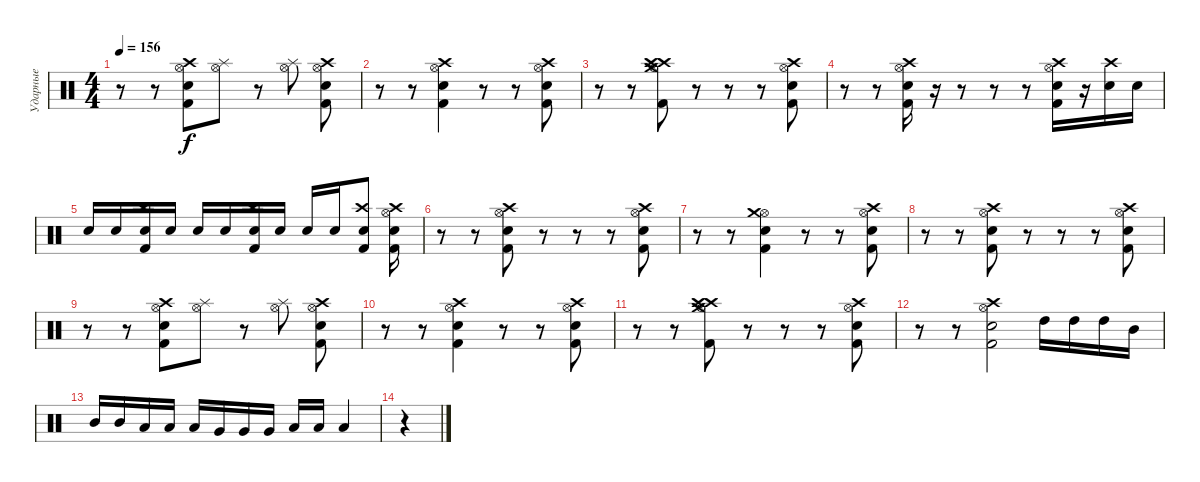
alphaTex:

\track ("Ударные" "Ударные") {instrument percussion}
\staff {score}
\articulation defaults
\ts (4 4)
\tempo 156
\clef neutral
\ks c
r.8{dy f} r.8 ("Kick (hit) 2" "Electric Snare (hit)" "Hi-Hat (open)" "Crash high (hit)").8 ("Splash (hit)" "Hi-Hat (open)").8 r.8 ("Splash (hit)" "Hi-Hat (open)").8 ("Kick (hit) 2" "Electric Snare (hit)" "Hi-Hat (open)" "Crash high (hit)").8 |
r.8 r.8 ("Kick (hit) 2" "Electric Snare (hit)" "Hi-Hat (open)" "Crash high (hit)").4 r.8 r.8 ("Kick (hit) 2" "Electric Snare (hit)" "Hi-Hat (open)" "Crash high (hit)").8 |
r.8 r.8 ("Kick (hit) 2" "Crash medium (hit)" "Crash high (hit)" "Hi-Hat (open)" "Crash high (hit)").8 r.8 r.8 r.8 ("Kick (hit) 2" "Electric Snare (hit)" "Hi-Hat (open)" "Crash high (hit)").8 |
r.8 r.8 ("Kick (hit) 2" "Electric Snare (hit)" "Hi-Hat (open)" "Crash high (hit)").16 r.16 r.8 r.8 r.8 ("Kick (hit) 2" "Electric Snare (hit)" "Hi-Hat (open)" "Crash high (hit)").16 r.16 ("Snare (hit) 2" "Crash high (hit)").16 "Electric Snare (hit)".16 |
"Snare (hit) 2".16 "Electric Snare (hit)".16 ("Kick (hit) 2" "Snare (hit) 2" "Crash high (hit)").16 "Electric Snare (hit)".16 "Snare (hit) 2".16 "Electric Snare (hit)".16 ("Kick (hit) 2" "Snare (hit) 2" "Crash high (hit)").16 "Electric Snare (hit)".16 "Snare (hit) 2".16 "Electric Snare (hit)".16 ("Kick (hit) 2" "Snare (hit) 2" "Crash high (hit)").8 ("Kick (hit) 2" "Electric Snare (hit)" "Hi-Hat (open)" "Crash high (hit)").16 |
r.8 r.8 ("Kick (hit) 2" "Electric Snare (hit)" "Hi-Hat (open)" "Crash high (hit)").8 r.8 r.8 r.8 ("Kick (hit) 2" "Electric Snare (hit)" "Hi-Hat (open)" "Crash high (hit)").8 |
r.8 r.8 ("Kick (hit) 2" "Electric Snare (hit)" "Hi-Hat (open)" "Crash medium (hit)").4 r.8 r.8 ("Kick (hit) 2" "Electric Snare (hit)" "Hi-Hat (open)" "Crash high (hit)").8 |
r.8 r.8 ("Kick (hit) 2" "Electric Snare (hit)" "Hi-Hat (open)" "Crash high (hit)").8 r.8 r.8 r.8 ("Kick (hit) 2" "Electric Snare (hit)" "Hi-Hat (open)" "Crash high (hit)").8 |
r.8 r.8 ("Kick (hit) 2" "Electric Snare (hit)" "Hi-Hat (open)" "Crash high (hit)").8 ("Splash (hit)" "Hi-Hat (open)").8 r.8 ("Splash (hit)" "Hi-Hat (open)").8 ("Kick (hit) 2" "Electric Snare (hit)" "Hi-Hat (open)" "Crash high (hit)").8 |
r.8 r.8 ("Kick (hit) 2" "Electric Snare (hit)" "Hi-Hat (open)" "Crash high (hit)").4 r.8 r.8 ("Kick (hit) 2" "Electric Snare (hit)" "Hi-Hat (open)" "Crash high (hit)").8 |
r.8 r.8 ("Kick (hit) 2" "Crash medium (hit)" "Crash high (hit)" "Hi-Hat (open)" "Crash high (hit)").8 r.8 r.8 r.8 ("Kick (hit) 2" "Electric Snare (hit)" "Hi-Hat (open)" "Crash high (hit)").8 |
r.8 r.8 ("Kick (hit) 2" "Electric Snare (hit)" "Hi-Hat (open)" "Crash high (hit)").2 "High Tom (hit)".16 "High Tom (hit)".16 "High Tom (hit)".16 "Mid Tom (hit)".16 |
"Mid Tom (hit)".16 "Mid Tom (hit)".16 "Low Tom (hit)".16 "Low Tom (hit)".16 "Low Tom (hit)".16 "Very Low Tom (hit)".16 "Very Low Tom (hit)".16 "Very Low Tom (hit)".16 "Low Tom (hit)".16 "Low Tom (hit)".16 "Low Tom (hit)".4 |
r.4
